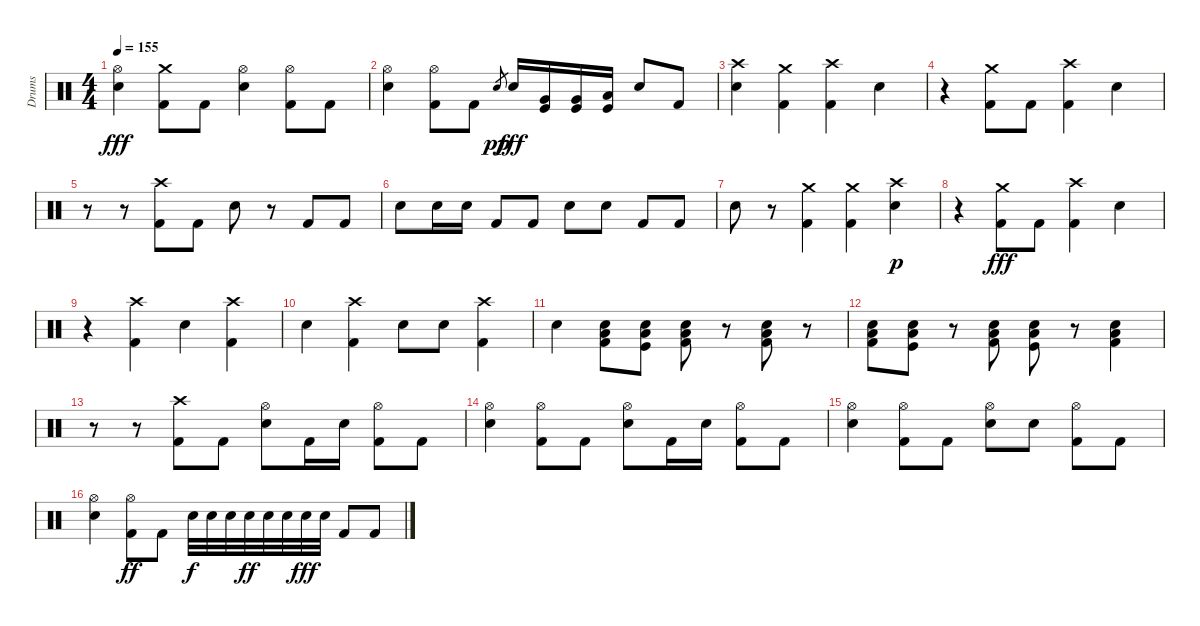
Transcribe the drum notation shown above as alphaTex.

\track ("Drums" "Drums") {instrument percussion}
\staff {score}
\articulation defaults
\ts (4 4)
\tempo 155
\clef neutral
\ks c
("Hi-Hat (open)" "Snare (hit) 2").4{dy fff} ("Crash medium (hit)" "Kick (hit) 2").8 "Kick (hit) 2".8 ("Hi-Hat (open)" "Snare (hit) 2").4 ("Hi-Hat (open)" "Kick (hit) 2").8 "Kick (hit) 2".8 |
("Hi-Hat (open)" "Snare (hit) 2").4 ("Hi-Hat (open)" "Kick (hit) 2").8 "Kick (hit) 2".8 "Snare (hit) 2".8{gr dy pp} "Snare (hit) 2".16{dy fff} ("Very Low Tom (hit)" "Kick (hit)").16 ("Very Low Tom (hit)" "Kick (hit)").16 ("Low Floor Tom (hit)" "Kick (hit)").16 "Snare (hit) 2".8 "Kick (hit) 2".8 |
("Crash high (hit)" "Snare (hit) 2").4 ("Crash medium (hit)" "Kick (hit) 2").4 ("Crash high (hit)" "Kick (hit) 2").4 "Snare (hit) 2".4 |
r.4 ("Crash medium (hit)" "Kick (hit) 2").8 "Kick (hit) 2".8 ("Crash high (hit)" "Kick (hit) 2").4 "Snare (hit) 2".4 |
r.8 r.8 ("Crash high (hit)" "Kick (hit) 2").8 "Kick (hit) 2".8 "Snare (hit) 2".8 r.8 "Kick (hit) 2".8 "Kick (hit) 2".8 |
"Snare (hit) 2".8 "Snare (hit) 2".16 "Snare (hit) 2".16 "Kick (hit) 2".8 "Kick (hit) 2".8 "Snare (hit) 2".8 "Snare (hit) 2".8 "Kick (hit) 2".8 "Kick (hit) 2".8 |
"Snare (hit) 2".8 r.8 ("Crash medium (hit)" "Kick (hit) 2").4 ("Crash medium (hit)" "Kick (hit) 2").4 ("Crash high (hit)" "Snare (hit) 2").4{dy p} |
r.4 ("Crash medium (hit)" "Kick (hit) 2").8{dy fff} "Kick (hit) 2".8 ("Crash high (hit)" "Kick (hit) 2").4 "Snare (hit) 2".4 |
r.4 ("Crash high (hit)" "Kick (hit) 2").4 "Snare (hit) 2".4 ("Crash high (hit)" "Kick (hit) 2").4 |
"Snare (hit) 2".4 ("Crash high (hit)" "Kick (hit) 2").4 "Snare (hit) 2".8 "Snare (hit) 2".8 ("Crash high (hit)" "Kick (hit) 2").4 |
"Snare (hit) 2".4 ("Snare (hit) 2" "Low Floor Tom (hit)" "Kick (hit) 2").8 ("Snare (hit) 2" "Low Floor Tom (hit)" "Kick (hit)").8 ("Snare (hit) 2" "Low Floor Tom (hit)" "Kick (hit) 2").8 r.8 ("Snare (hit) 2" "Low Floor Tom (hit)" "Kick (hit) 2").8 r.8 |
("Snare (hit) 2" "Low Floor Tom (hit)" "Kick (hit) 2").8 ("Snare (hit) 2" "Low Floor Tom (hit)" "Kick (hit)").8 r.8 ("Snare (hit) 2" "Low Floor Tom (hit)" "Kick (hit) 2").8 ("Snare (hit) 2" "Low Floor Tom (hit)" "Kick (hit)").8 r.8 ("Snare (hit) 2" "Low Floor Tom (hit)" "Kick (hit) 2").4 |
r.8 r.8 ("Crash high (hit)" "Kick (hit) 2").8 "Kick (hit) 2".8 ("Hi-Hat (open)" "Snare (hit) 2").8 "Kick (hit) 2".16 "Snare (hit) 2".16 ("Hi-Hat (open)" "Kick (hit) 2").8 "Kick (hit) 2".8 |
("Hi-Hat (open)" "Snare (hit) 2").4 ("Hi-Hat (open)" "Kick (hit) 2").8 "Kick (hit) 2".8 ("Hi-Hat (open)" "Snare (hit) 2").8 "Kick (hit) 2".16 "Snare (hit) 2".16 ("Hi-Hat (open)" "Kick (hit) 2").8 "Kick (hit) 2".8 |
("Hi-Hat (open)" "Snare (hit) 2").4 ("Hi-Hat (open)" "Kick (hit) 2").8 "Kick (hit) 2".8 ("Hi-Hat (open)" "Snare (hit) 2").8 "Snare (hit) 2".8 ("Hi-Hat (open)" "Kick (hit) 2").8 "Kick (hit) 2".8 |
("Hi-Hat (open)" "Snare (hit) 2").4 ("Hi-Hat (open)" "Kick (hit) 2").8{dy ff} "Kick (hit) 2".8 "Snare (hit) 2".32{dy f} "Snare (hit) 2".32 "Snare (hit) 2".32 "Snare (hit) 2".32{dy ff} "Snare (hit) 2".32 "Snare (hit) 2".32 "Snare (hit) 2".32{dy fff} "Snare (hit) 2".32 "Kick (hit) 2".8 "Kick (hit) 2".8
